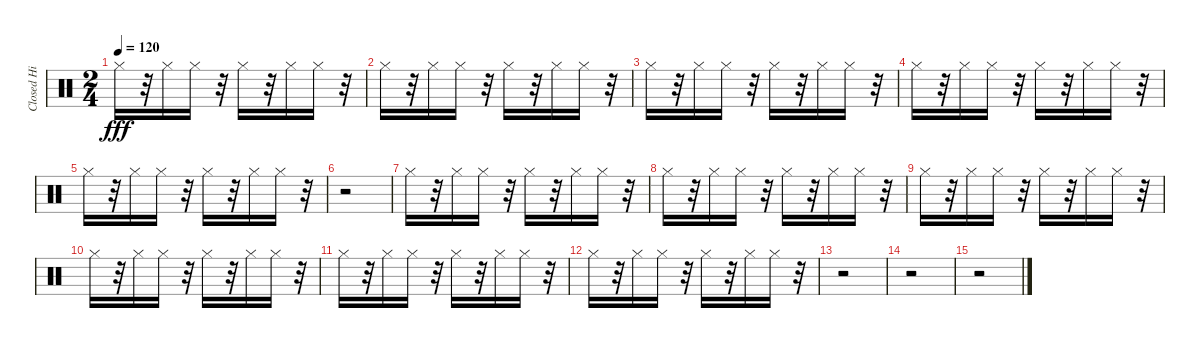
\track ("Closed Hi Hat (1) (1) (1) (1)" "Closed Hi ") {instrument percussion}
\staff {score}
\articulation defaults
\ts (2 4)
\tempo 120
\clef neutral
\ks c "Hi-Hat (closed)".16{dy fff}
r.32 "Hi-Hat (closed)".16 "Hi-Hat (closed)".16 r.32 "Hi-Hat (closed)".16 r.32 "Hi-Hat (closed)".16 "Hi-Hat (closed)".16 r.32 |
"Hi-Hat (closed)".16 r.32 "Hi-Hat (closed)".16 "Hi-Hat (closed)".16 r.32 "Hi-Hat (closed)".16 r.32 "Hi-Hat (closed)".16 "Hi-Hat (closed)".16 r.32 |
"Hi-Hat (closed)".16 r.32 "Hi-Hat (closed)".16 "Hi-Hat (closed)".16 r.32 "Hi-Hat (closed)".16 r.32 "Hi-Hat (closed)".16 "Hi-Hat (closed)".16 r.32 |
"Hi-Hat (closed)".16 r.32 "Hi-Hat (closed)".16 "Hi-Hat (closed)".16 r.32 "Hi-Hat (closed)".16 r.32 "Hi-Hat (closed)".16 "Hi-Hat (closed)".16 r.32 |
"Hi-Hat (closed)".16 r.32 "Hi-Hat (closed)".16 "Hi-Hat (closed)".16 r.32 "Hi-Hat (closed)".16 r.32 "Hi-Hat (closed)".16 "Hi-Hat (closed)".16 r.32 |
r.2 |
"Hi-Hat (closed)".16 r.32 "Hi-Hat (closed)".16 "Hi-Hat (closed)".16 r.32 "Hi-Hat (closed)".16 r.32 "Hi-Hat (closed)".16 "Hi-Hat (closed)".16 r.32 |
"Hi-Hat (closed)".16 r.32 "Hi-Hat (closed)".16 "Hi-Hat (closed)".16 r.32 "Hi-Hat (closed)".16 r.32 "Hi-Hat (closed)".16 "Hi-Hat (closed)".16 r.32 |
"Hi-Hat (closed)".16 r.32 "Hi-Hat (closed)".16 "Hi-Hat (closed)".16 r.32 "Hi-Hat (closed)".16 r.32 "Hi-Hat (closed)".16 "Hi-Hat (closed)".16 r.32 |
"Hi-Hat (closed)".16 r.32 "Hi-Hat (closed)".16 "Hi-Hat (closed)".16 r.32 "Hi-Hat (closed)".16 r.32 "Hi-Hat (closed)".16 "Hi-Hat (closed)".16 r.32 |
"Hi-Hat (closed)".16 r.32 "Hi-Hat (closed)".16 "Hi-Hat (closed)".16 r.32 "Hi-Hat (closed)".16 r.32 "Hi-Hat (closed)".16 "Hi-Hat (closed)".16 r.32 |
"Hi-Hat (closed)".16 r.32 "Hi-Hat (closed)".16 "Hi-Hat (closed)".16 r.32 "Hi-Hat (closed)".16 r.32 "Hi-Hat (closed)".16 "Hi-Hat (closed)".16 r.32 |
r.2 |
r.2 |
r.2
